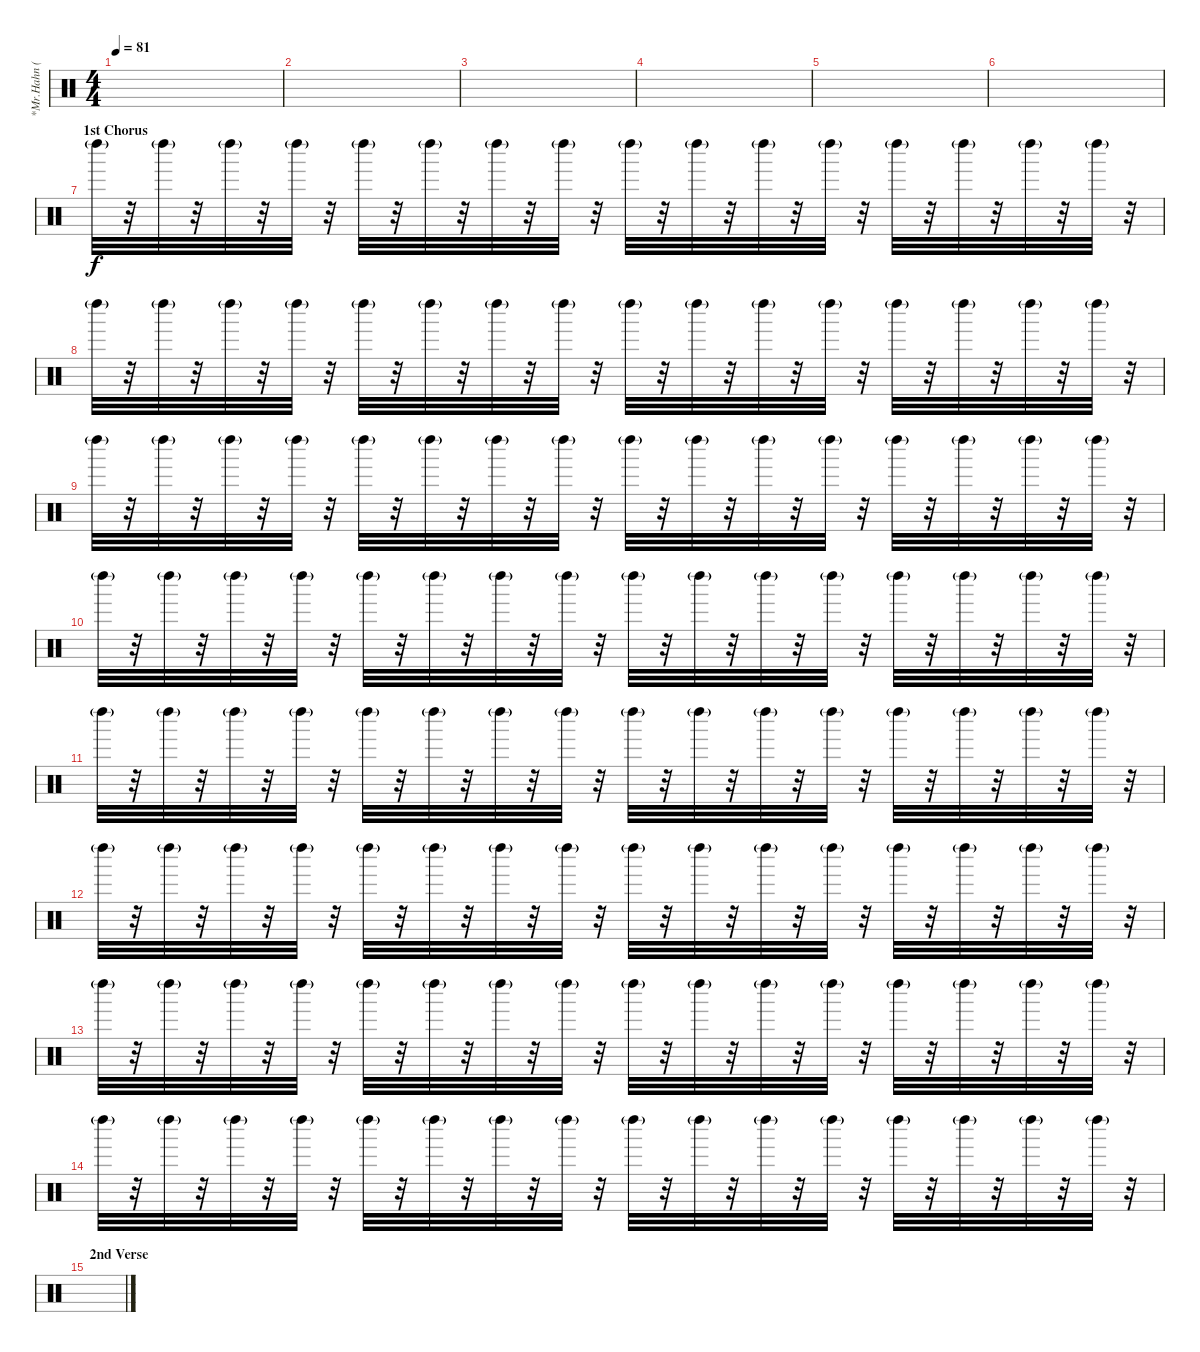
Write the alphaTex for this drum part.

\track ("*Mr.Hahn (Sampler)" "*Mr.Hahn (") {instrument percussion}
\staff {score}
\articulation defaults
\ts (4 4)
\tempo 81
\clef neutral
\ks c
|
|
|
|
|
|
\section ("" "1st Chorus")
"Left Maraca (hit)"{g}.32 r.32 "Left Maraca (hit)"{g}.32 r.32 "Left Maraca (hit)"{g}.32 r.32 "Left Maraca (hit)"{g}.32 r.32 "Left Maraca (hit)"{g}.32 r.32 "Left Maraca (hit)"{g}.32 r.32 "Left Maraca (hit)"{g}.32 r.32 "Left Maraca (hit)"{g}.32 r.32 "Left Maraca (hit)"{g}.32 r.32 "Left Maraca (hit)"{g}.32 r.32 "Left Maraca (hit)"{g}.32 r.32 "Left Maraca (hit)"{g}.32 r.32 "Left Maraca (hit)"{g}.32 r.32 "Left Maraca (hit)"{g}.32 r.32 "Left Maraca (hit)"{g}.32 r.32 "Left Maraca (hit)"{g}.32 r.32 |
"Left Maraca (hit)"{g}.32 r.32 "Left Maraca (hit)"{g}.32 r.32 "Left Maraca (hit)"{g}.32 r.32 "Left Maraca (hit)"{g}.32 r.32 "Left Maraca (hit)"{g}.32 r.32 "Left Maraca (hit)"{g}.32 r.32 "Left Maraca (hit)"{g}.32 r.32 "Left Maraca (hit)"{g}.32 r.32 "Left Maraca (hit)"{g}.32 r.32 "Left Maraca (hit)"{g}.32 r.32 "Left Maraca (hit)"{g}.32 r.32 "Left Maraca (hit)"{g}.32 r.32 "Left Maraca (hit)"{g}.32 r.32 "Left Maraca (hit)"{g}.32 r.32 "Left Maraca (hit)"{g}.32 r.32 "Left Maraca (hit)"{g}.32 r.32 |
"Left Maraca (hit)"{g}.32 r.32 "Left Maraca (hit)"{g}.32 r.32 "Left Maraca (hit)"{g}.32 r.32 "Left Maraca (hit)"{g}.32 r.32 "Left Maraca (hit)"{g}.32 r.32 "Left Maraca (hit)"{g}.32 r.32 "Left Maraca (hit)"{g}.32 r.32 "Left Maraca (hit)"{g}.32 r.32 "Left Maraca (hit)"{g}.32 r.32 "Left Maraca (hit)"{g}.32 r.32 "Left Maraca (hit)"{g}.32 r.32 "Left Maraca (hit)"{g}.32 r.32 "Left Maraca (hit)"{g}.32 r.32 "Left Maraca (hit)"{g}.32 r.32 "Left Maraca (hit)"{g}.32 r.32 "Left Maraca (hit)"{g}.32 r.32 |
"Left Maraca (hit)"{g}.32 r.32 "Left Maraca (hit)"{g}.32 r.32 "Left Maraca (hit)"{g}.32 r.32 "Left Maraca (hit)"{g}.32 r.32 "Left Maraca (hit)"{g}.32 r.32 "Left Maraca (hit)"{g}.32 r.32 "Left Maraca (hit)"{g}.32 r.32 "Left Maraca (hit)"{g}.32 r.32 "Left Maraca (hit)"{g}.32 r.32 "Left Maraca (hit)"{g}.32 r.32 "Left Maraca (hit)"{g}.32 r.32 "Left Maraca (hit)"{g}.32 r.32 "Left Maraca (hit)"{g}.32 r.32 "Left Maraca (hit)"{g}.32 r.32 "Left Maraca (hit)"{g}.32 r.32 "Left Maraca (hit)"{g}.32 r.32 |
"Left Maraca (hit)"{g}.32 r.32 "Left Maraca (hit)"{g}.32 r.32 "Left Maraca (hit)"{g}.32 r.32 "Left Maraca (hit)"{g}.32 r.32 "Left Maraca (hit)"{g}.32 r.32 "Left Maraca (hit)"{g}.32 r.32 "Left Maraca (hit)"{g}.32 r.32 "Left Maraca (hit)"{g}.32 r.32 "Left Maraca (hit)"{g}.32 r.32 "Left Maraca (hit)"{g}.32 r.32 "Left Maraca (hit)"{g}.32 r.32 "Left Maraca (hit)"{g}.32 r.32 "Left Maraca (hit)"{g}.32 r.32 "Left Maraca (hit)"{g}.32 r.32 "Left Maraca (hit)"{g}.32 r.32 "Left Maraca (hit)"{g}.32 r.32 |
"Left Maraca (hit)"{g}.32 r.32 "Left Maraca (hit)"{g}.32 r.32 "Left Maraca (hit)"{g}.32 r.32 "Left Maraca (hit)"{g}.32 r.32 "Left Maraca (hit)"{g}.32 r.32 "Left Maraca (hit)"{g}.32 r.32 "Left Maraca (hit)"{g}.32 r.32 "Left Maraca (hit)"{g}.32 r.32 "Left Maraca (hit)"{g}.32 r.32 "Left Maraca (hit)"{g}.32 r.32 "Left Maraca (hit)"{g}.32 r.32 "Left Maraca (hit)"{g}.32 r.32 "Left Maraca (hit)"{g}.32 r.32 "Left Maraca (hit)"{g}.32 r.32 "Left Maraca (hit)"{g}.32 r.32 "Left Maraca (hit)"{g}.32 r.32 |
"Left Maraca (hit)"{g}.32 r.32 "Left Maraca (hit)"{g}.32 r.32 "Left Maraca (hit)"{g}.32 r.32 "Left Maraca (hit)"{g}.32 r.32 "Left Maraca (hit)"{g}.32 r.32 "Left Maraca (hit)"{g}.32 r.32 "Left Maraca (hit)"{g}.32 r.32 "Left Maraca (hit)"{g}.32 r.32 "Left Maraca (hit)"{g}.32 r.32 "Left Maraca (hit)"{g}.32 r.32 "Left Maraca (hit)"{g}.32 r.32 "Left Maraca (hit)"{g}.32 r.32 "Left Maraca (hit)"{g}.32 r.32 "Left Maraca (hit)"{g}.32 r.32 "Left Maraca (hit)"{g}.32 r.32 "Left Maraca (hit)"{g}.32 r.32 |
"Left Maraca (hit)"{g}.32 r.32 "Left Maraca (hit)"{g}.32 r.32 "Left Maraca (hit)"{g}.32 r.32 "Left Maraca (hit)"{g}.32 r.32 "Left Maraca (hit)"{g}.32 r.32 "Left Maraca (hit)"{g}.32 r.32 "Left Maraca (hit)"{g}.32 r.32 "Left Maraca (hit)"{g}.32 r.32 "Left Maraca (hit)"{g}.32 r.32 "Left Maraca (hit)"{g}.32 r.32 "Left Maraca (hit)"{g}.32 r.32 "Left Maraca (hit)"{g}.32 r.32 "Left Maraca (hit)"{g}.32 r.32 "Left Maraca (hit)"{g}.32 r.32 "Left Maraca (hit)"{g}.32 r.32 "Left Maraca (hit)"{g}.32 r.32 |
\section ("" "2nd Verse")
